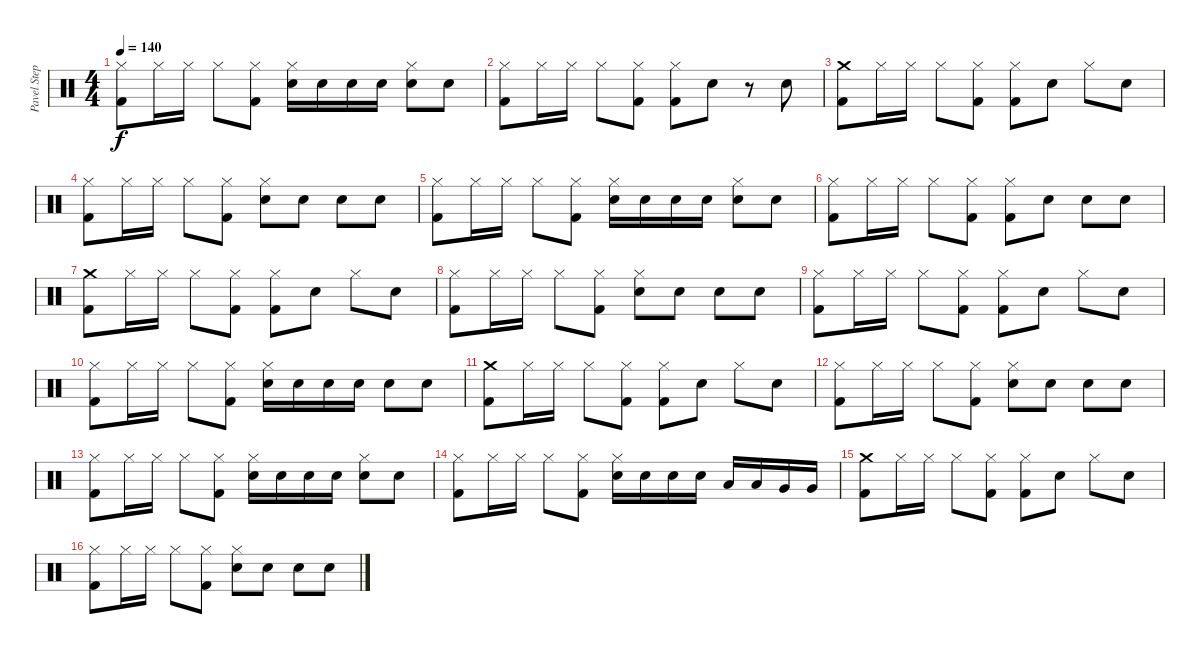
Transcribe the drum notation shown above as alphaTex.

\track ("Pavel Stepan" "Pavel Step") {instrument percussion}
\staff {score}
\articulation defaults
\ts (4 4)
\tempo 140
\clef neutral
\ks c
("Hi-Hat (closed)" "Kick (hit) 2").8{dy f} "Hi-Hat (closed)".16 "Hi-Hat (closed)".16 "Hi-Hat (closed)".8 ("Hi-Hat (closed)" "Kick (hit) 2").8 ("Hi-Hat (closed)" "Snare (hit) 2").16 "Snare (hit) 2".16 "Snare (hit) 2".16 "Snare (hit) 2".16 ("Hi-Hat (closed)" "Snare (hit) 2").8 "Snare (hit) 2".8 |
("Hi-Hat (closed)" "Kick (hit) 2").8 "Hi-Hat (closed)".16 "Hi-Hat (closed)".16 "Hi-Hat (closed)".8 ("Hi-Hat (closed)" "Kick (hit) 2").8 ("Hi-Hat (closed)" "Kick (hit) 2").8 "Snare (hit) 2".8 r.8 "Snare (hit) 2".8 |
("Crash medium (hit)" "Kick (hit) 2").8 "Hi-Hat (closed)".16 "Hi-Hat (closed)".16 "Hi-Hat (closed)".8 ("Hi-Hat (closed)" "Kick (hit) 2").8 ("Hi-Hat (closed)" "Kick (hit) 2").8 "Snare (hit) 2".8 "Hi-Hat (closed)".8 "Snare (hit) 2".8 |
("Hi-Hat (closed)" "Kick (hit) 2").8 "Hi-Hat (closed)".16 "Hi-Hat (closed)".16 "Hi-Hat (closed)".8 ("Hi-Hat (closed)" "Kick (hit) 2").8 ("Hi-Hat (closed)" "Snare (hit) 2").8 "Snare (hit) 2".8 "Snare (hit) 2".8 "Snare (hit) 2".8 |
("Hi-Hat (closed)" "Kick (hit) 2").8 "Hi-Hat (closed)".16 "Hi-Hat (closed)".16 "Hi-Hat (closed)".8 ("Hi-Hat (closed)" "Kick (hit) 2").8 ("Hi-Hat (closed)" "Snare (hit) 2").16 "Snare (hit) 2".16 "Snare (hit) 2".16 "Snare (hit) 2".16 ("Hi-Hat (closed)" "Snare (hit) 2").8 "Snare (hit) 2".8 |
("Hi-Hat (closed)" "Kick (hit) 2").8 "Hi-Hat (closed)".16 "Hi-Hat (closed)".16 "Hi-Hat (closed)".8 ("Hi-Hat (closed)" "Kick (hit) 2").8 ("Hi-Hat (closed)" "Kick (hit) 2").8 "Snare (hit) 2".8 "Snare (hit) 2".8 "Snare (hit) 2".8 |
("Crash medium (hit)" "Kick (hit) 2").8 "Hi-Hat (closed)".16 "Hi-Hat (closed)".16 "Hi-Hat (closed)".8 ("Hi-Hat (closed)" "Kick (hit) 2").8 ("Hi-Hat (closed)" "Kick (hit) 2").8 "Snare (hit) 2".8 "Hi-Hat (closed)".8 "Snare (hit) 2".8 |
("Hi-Hat (closed)" "Kick (hit) 2").8 "Hi-Hat (closed)".16 "Hi-Hat (closed)".16 "Hi-Hat (closed)".8 ("Hi-Hat (closed)" "Kick (hit) 2").8 ("Hi-Hat (closed)" "Snare (hit) 2").8 "Snare (hit) 2".8 "Snare (hit) 2".8 "Snare (hit) 2".8 |
("Hi-Hat (closed)" "Kick (hit) 2").8 "Hi-Hat (closed)".16 "Hi-Hat (closed)".16 "Hi-Hat (closed)".8 ("Hi-Hat (closed)" "Kick (hit) 2").8 ("Hi-Hat (closed)" "Kick (hit) 2").8 "Snare (hit) 2".8 "Hi-Hat (closed)".8 "Snare (hit) 2".8 |
("Hi-Hat (closed)" "Kick (hit) 2").8 "Hi-Hat (closed)".16 "Hi-Hat (closed)".16 "Hi-Hat (closed)".8 ("Hi-Hat (closed)" "Kick (hit) 2").8 ("Hi-Hat (closed)" "Snare (hit) 2").16 "Snare (hit) 2".16 "Snare (hit) 2".16 "Snare (hit) 2".16 "Snare (hit) 2".8 "Snare (hit) 2".8 |
("Crash medium (hit)" "Kick (hit) 2").8 "Hi-Hat (closed)".16 "Hi-Hat (closed)".16 "Hi-Hat (closed)".8 ("Hi-Hat (closed)" "Kick (hit) 2").8 ("Hi-Hat (closed)" "Kick (hit) 2").8 "Snare (hit) 2".8 "Hi-Hat (closed)".8 "Snare (hit) 2".8 |
("Hi-Hat (closed)" "Kick (hit) 2").8 "Hi-Hat (closed)".16 "Hi-Hat (closed)".16 "Hi-Hat (closed)".8 ("Hi-Hat (closed)" "Kick (hit) 2").8 ("Hi-Hat (closed)" "Snare (hit) 2").8 "Snare (hit) 2".8 "Snare (hit) 2".8 "Snare (hit) 2".8 |
("Hi-Hat (closed)" "Kick (hit) 2").8 "Hi-Hat (closed)".16 "Hi-Hat (closed)".16 "Hi-Hat (closed)".8 ("Hi-Hat (closed)" "Kick (hit) 2").8 ("Hi-Hat (closed)" "Snare (hit) 2").16 "Snare (hit) 2".16 "Snare (hit) 2".16 "Snare (hit) 2".16 ("Hi-Hat (closed)" "Snare (hit) 2").8 "Snare (hit) 2".8 |
("Hi-Hat (closed)" "Kick (hit) 2").8 "Hi-Hat (closed)".16 "Hi-Hat (closed)".16 "Hi-Hat (closed)".8 ("Hi-Hat (closed)" "Kick (hit) 2").8 ("Hi-Hat (closed)" "Snare (hit) 2").16 "Snare (hit) 2".16 "Snare (hit) 2".16 "Snare (hit) 2".16 "Low Tom (hit)".16 "Low Tom (hit)".16 "Very Low Tom (hit)".16 "Very Low Tom (hit)".16 |
("Crash medium (hit)" "Kick (hit) 2").8 "Hi-Hat (closed)".16 "Hi-Hat (closed)".16 "Hi-Hat (closed)".8 ("Hi-Hat (closed)" "Kick (hit) 2").8 ("Hi-Hat (closed)" "Kick (hit) 2").8 "Snare (hit) 2".8 "Hi-Hat (closed)".8 "Snare (hit) 2".8 |
("Hi-Hat (closed)" "Kick (hit) 2").8 "Hi-Hat (closed)".16 "Hi-Hat (closed)".16 "Hi-Hat (closed)".8 ("Hi-Hat (closed)" "Kick (hit) 2").8 ("Hi-Hat (closed)" "Snare (hit) 2").8 "Snare (hit) 2".8 "Snare (hit) 2".8 "Snare (hit) 2".8
